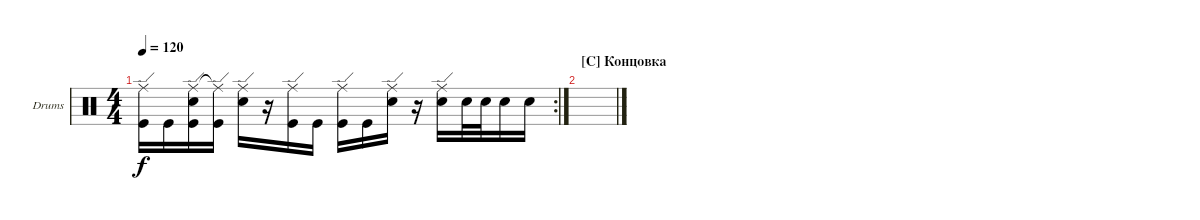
\defaultSystemsLayout 4
\bracketExtendMode groupsimilarinstruments
\firstSystemTrackNameOrientation horizontal
\otherSystemsTrackNameOrientation horizontal
\track ("Drumkit" "Drums") {instrument percussion}
\staff {score}
\articulation defaults
\rc 2
\ts (4 4)
\tempo 120
\clef neutral
\ks c
("Ride (edge)" "Kick (hit)").16{dy f} "Kick (hit)".16 ("Ride (edge)" "Snare (hit) 2" "Kick (hit)").16 ("Ride (edge)"{t} "Kick (hit)").16 ("Ride (edge)" "Snare (hit) 2").16 r.16 ("Ride (edge)" "Kick (hit)").16 "Kick (hit)".16 ("Ride (edge)" "Kick (hit)").16 "Kick (hit)".16 ("Ride (edge)" "Snare (hit) 2").16 r.16 ("Ride (edge)" "Snare (hit) 2").16 "Snare (hit) 2".32 "Snare (hit) 2".32 "Snare (hit) 2".16 "Snare (hit) 2".16 |
\section ("C" "Концовка")
